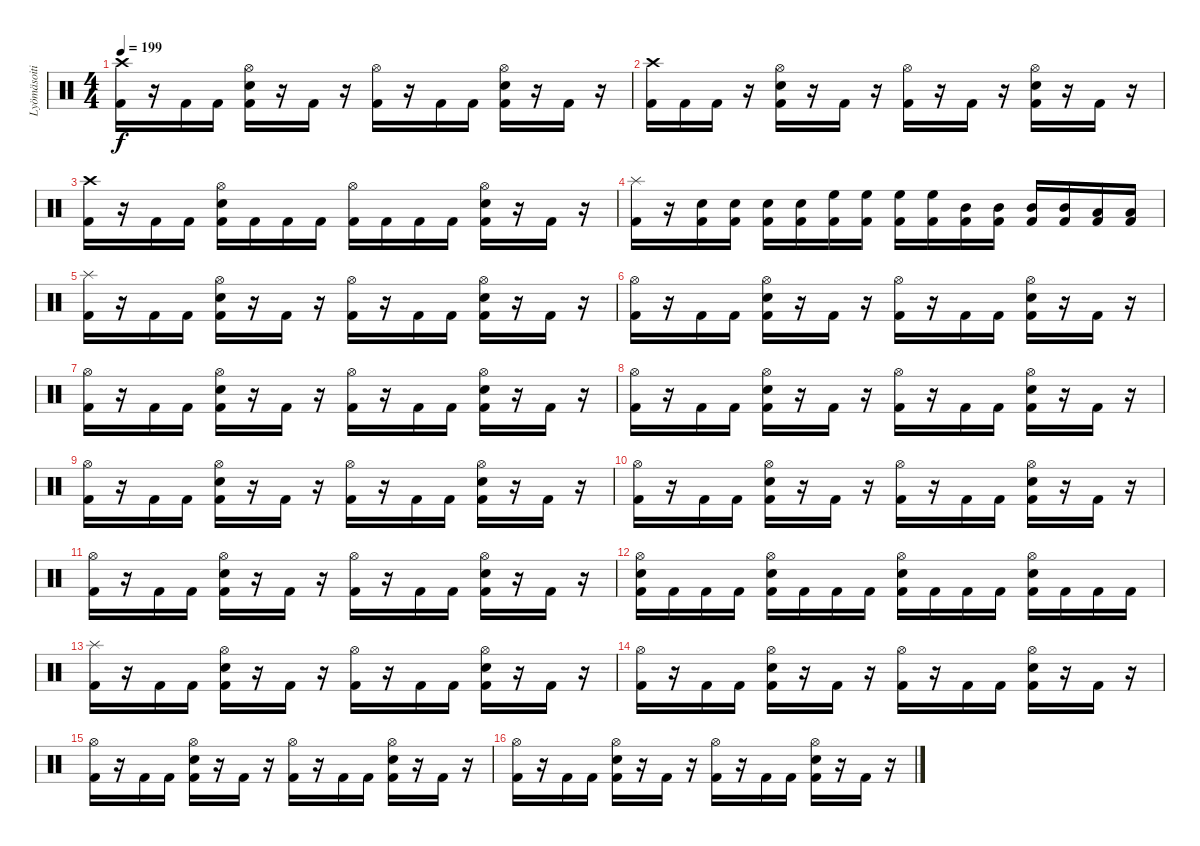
\track ("Lyömäsoitin" "Lyömäsoiti") {instrument percussion}
\staff {score}
\articulation defaults
\ts (4 4)
\tempo 199
\clef neutral
\ks c
("Kick (hit) 2" "Crash high (hit)").16{dy f} r.16 "Kick (hit) 2".16 "Kick (hit) 2".16 ("Kick (hit) 2" "Snare (hit) 2" "Hi-Hat (open)").16 r.16 "Kick (hit) 2".16 r.16 ("Kick (hit) 2" "Hi-Hat (open)").16 r.16 "Kick (hit) 2".16 "Kick (hit) 2".16 ("Kick (hit) 2" "Snare (hit) 2" "Hi-Hat (open)").16 r.16 "Kick (hit) 2".16 r.16 |
("Kick (hit) 2" "Crash high (hit)").16 "Kick (hit) 2".16 "Kick (hit) 2".16 r.16 ("Kick (hit) 2" "Snare (hit) 2" "Hi-Hat (open)").16 r.16 "Kick (hit) 2".16 r.16 ("Kick (hit) 2" "Hi-Hat (open)").16 r.16 "Kick (hit) 2".16 r.16 ("Kick (hit) 2" "Snare (hit) 2" "Hi-Hat (open)").16 r.16 "Kick (hit) 2".16 r.16 |
("Kick (hit) 2" "Crash high (hit)").16 r.16 "Kick (hit) 2".16 "Kick (hit) 2".16 ("Kick (hit) 2" "Snare (hit) 2" "Hi-Hat (open)").16 "Kick (hit) 2".16 "Kick (hit) 2".16 "Kick (hit) 2".16 ("Kick (hit) 2" "Hi-Hat (open)").16 "Kick (hit) 2".16 "Kick (hit) 2".16 "Kick (hit) 2".16 ("Kick (hit) 2" "Snare (hit) 2" "Hi-Hat (open)").16 r.16 "Kick (hit) 2".16 r.16 |
("Kick (hit) 2" "Splash (hit)").16 r.16 ("Kick (hit) 2" "Snare (hit) 2").16 ("Kick (hit) 2" "Snare (hit) 2").16 ("Kick (hit) 2" "Snare (hit) 2").16 ("Kick (hit) 2" "Snare (hit) 2").16 ("Kick (hit) 2" "High Floor Tom (hit)").16 ("Kick (hit) 2" "High Floor Tom (hit)").16 ("Kick (hit) 2" "High Floor Tom (hit)").16 ("Kick (hit) 2" "High Floor Tom (hit)").16 ("Kick (hit) 2" "Mid Tom (hit)").16 ("Kick (hit) 2" "Mid Tom (hit)").16 ("Kick (hit) 2" "Mid Tom (hit)").16 ("Kick (hit) 2" "Mid Tom (hit)").16 ("Kick (hit) 2" "Low Tom (hit)").16 ("Kick (hit) 2" "Low Tom (hit)").16 |
("Kick (hit) 2" "Splash (hit)").16 r.16 "Kick (hit) 2".16 "Kick (hit) 2".16 ("Kick (hit) 2" "Hi-Hat (open)" "Snare (hit) 2").16 r.16 "Kick (hit) 2".16 r.16 ("Kick (hit) 2" "Hi-Hat (open)").16 r.16 "Kick (hit) 2".16 "Kick (hit) 2".16 ("Kick (hit) 2" "Hi-Hat (open)" "Snare (hit) 2").16 r.16 "Kick (hit) 2".16 r.16 |
("Kick (hit) 2" "Hi-Hat (open)").16 r.16 "Kick (hit) 2".16 "Kick (hit) 2".16 ("Kick (hit) 2" "Hi-Hat (open)" "Snare (hit) 2").16 r.16 "Kick (hit) 2".16 r.16 ("Kick (hit) 2" "Hi-Hat (open)").16 r.16 "Kick (hit) 2".16 "Kick (hit) 2".16 ("Kick (hit) 2" "Hi-Hat (open)" "Snare (hit) 2").16 r.16 "Kick (hit) 2".16 r.16 |
("Kick (hit) 2" "Hi-Hat (open)").16 r.16 "Kick (hit) 2".16 "Kick (hit) 2".16 ("Kick (hit) 2" "Hi-Hat (open)" "Snare (hit) 2").16 r.16 "Kick (hit) 2".16 r.16 ("Kick (hit) 2" "Hi-Hat (open)").16 r.16 "Kick (hit) 2".16 "Kick (hit) 2".16 ("Kick (hit) 2" "Hi-Hat (open)" "Snare (hit) 2").16 r.16 "Kick (hit) 2".16 r.16 |
("Kick (hit) 2" "Hi-Hat (open)").16 r.16 "Kick (hit) 2".16 "Kick (hit) 2".16 ("Kick (hit) 2" "Hi-Hat (open)" "Snare (hit) 2").16 r.16 "Kick (hit) 2".16 r.16 ("Kick (hit) 2" "Hi-Hat (open)").16 r.16 "Kick (hit) 2".16 "Kick (hit) 2".16 ("Kick (hit) 2" "Hi-Hat (open)" "Snare (hit) 2").16 r.16 "Kick (hit) 2".16 r.16 |
("Kick (hit) 2" "Hi-Hat (open)").16 r.16 "Kick (hit) 2".16 "Kick (hit) 2".16 ("Kick (hit) 2" "Hi-Hat (open)" "Snare (hit) 2").16 r.16 "Kick (hit) 2".16 r.16 ("Kick (hit) 2" "Hi-Hat (open)").16 r.16 "Kick (hit) 2".16 "Kick (hit) 2".16 ("Kick (hit) 2" "Hi-Hat (open)" "Snare (hit) 2").16 r.16 "Kick (hit) 2".16 r.16 |
("Kick (hit) 2" "Hi-Hat (open)").16 r.16 "Kick (hit) 2".16 "Kick (hit) 2".16 ("Kick (hit) 2" "Hi-Hat (open)" "Snare (hit) 2").16 r.16 "Kick (hit) 2".16 r.16 ("Kick (hit) 2" "Hi-Hat (open)").16 r.16 "Kick (hit) 2".16 "Kick (hit) 2".16 ("Kick (hit) 2" "Hi-Hat (open)" "Snare (hit) 2").16 r.16 "Kick (hit) 2".16 r.16 |
("Kick (hit) 2" "Hi-Hat (open)").16 r.16 "Kick (hit) 2".16 "Kick (hit) 2".16 ("Kick (hit) 2" "Hi-Hat (open)" "Snare (hit) 2").16 r.16 "Kick (hit) 2".16 r.16 ("Kick (hit) 2" "Hi-Hat (open)").16 r.16 "Kick (hit) 2".16 "Kick (hit) 2".16 ("Kick (hit) 2" "Hi-Hat (open)" "Snare (hit) 2").16 r.16 "Kick (hit) 2".16 r.16 |
("Kick (hit) 2" "Hi-Hat (open)" "Snare (hit) 2").16 "Kick (hit) 2".16 "Kick (hit) 2".16 "Kick (hit) 2".16 ("Kick (hit) 2" "Hi-Hat (open)" "Snare (hit) 2").16 "Kick (hit) 2".16 "Kick (hit) 2".16 "Kick (hit) 2".16 ("Kick (hit) 2" "Hi-Hat (open)" "Snare (hit) 2").16 "Kick (hit) 2".16 "Kick (hit) 2".16 "Kick (hit) 2".16 ("Kick (hit) 2" "Hi-Hat (open)" "Snare (hit) 2").16 "Kick (hit) 2".16 "Kick (hit) 2".16 "Kick (hit) 2".16 |
("Kick (hit) 2" "Splash (hit)").16 r.16 "Kick (hit) 2".16 "Kick (hit) 2".16 ("Kick (hit) 2" "Hi-Hat (open)" "Snare (hit) 2").16 r.16 "Kick (hit) 2".16 r.16 ("Kick (hit) 2" "Hi-Hat (open)").16 r.16 "Kick (hit) 2".16 "Kick (hit) 2".16 ("Kick (hit) 2" "Hi-Hat (open)" "Snare (hit) 2").16 r.16 "Kick (hit) 2".16 r.16 |
("Kick (hit) 2" "Hi-Hat (open)").16 r.16 "Kick (hit) 2".16 "Kick (hit) 2".16 ("Kick (hit) 2" "Hi-Hat (open)" "Snare (hit) 2").16 r.16 "Kick (hit) 2".16 r.16 ("Kick (hit) 2" "Hi-Hat (open)").16 r.16 "Kick (hit) 2".16 "Kick (hit) 2".16 ("Kick (hit) 2" "Hi-Hat (open)" "Snare (hit) 2").16 r.16 "Kick (hit) 2".16 r.16 |
("Kick (hit) 2" "Hi-Hat (open)").16 r.16 "Kick (hit) 2".16 "Kick (hit) 2".16 ("Kick (hit) 2" "Hi-Hat (open)" "Snare (hit) 2").16 r.16 "Kick (hit) 2".16 r.16 ("Kick (hit) 2" "Hi-Hat (open)").16 r.16 "Kick (hit) 2".16 "Kick (hit) 2".16 ("Kick (hit) 2" "Hi-Hat (open)" "Snare (hit) 2").16 r.16 "Kick (hit) 2".16 r.16 |
("Kick (hit) 2" "Hi-Hat (open)").16 r.16 "Kick (hit) 2".16 "Kick (hit) 2".16 ("Kick (hit) 2" "Hi-Hat (open)" "Snare (hit) 2").16 r.16 "Kick (hit) 2".16 r.16 ("Kick (hit) 2" "Hi-Hat (open)").16 r.16 "Kick (hit) 2".16 "Kick (hit) 2".16 ("Kick (hit) 2" "Hi-Hat (open)" "Snare (hit) 2").16 r.16 "Kick (hit) 2".16 r.16
